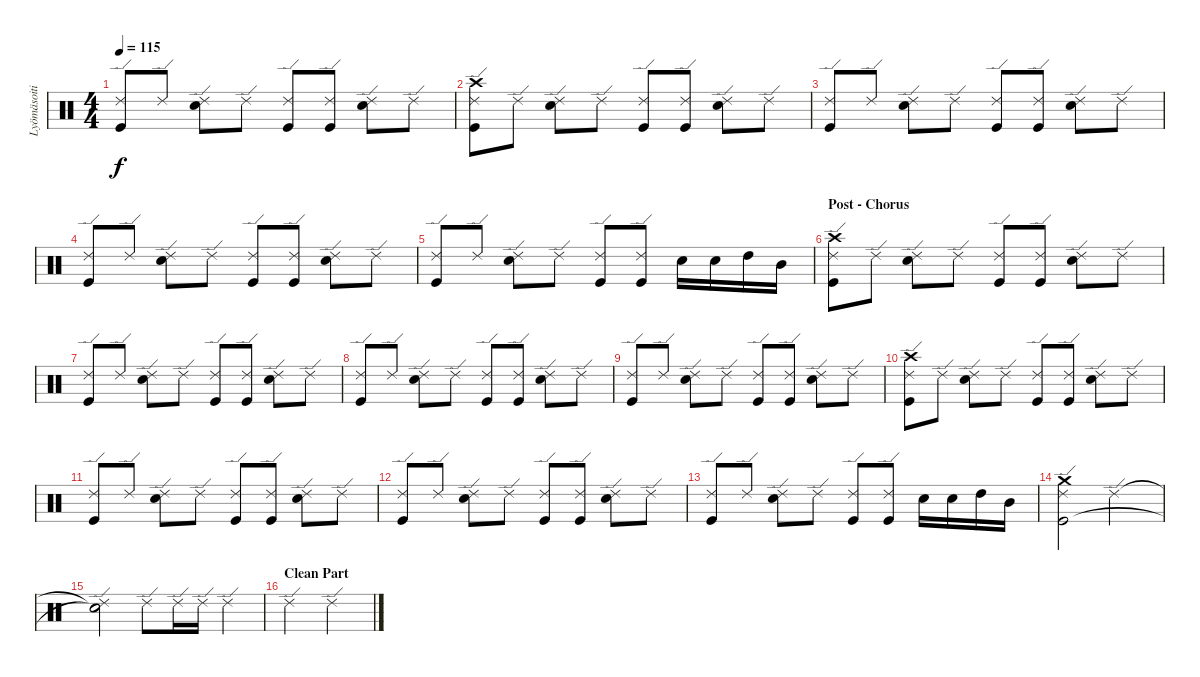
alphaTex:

\track ("Lyömäsoitin" "Lyömäsoiti") {instrument percussion}
\staff {score}
\articulation defaults
\ts (4 4)
\tempo 115
\clef neutral
\ks c
("Ride (edge) 2" "Kick (hit)").8{dy f} "Ride (edge) 2".8 ("Ride (edge) 2" "Snare (hit) 2").8 "Ride (edge) 2".8 ("Ride (edge) 2" "Kick (hit)").8 ("Ride (edge) 2" "Kick (hit)").8 ("Ride (edge) 2" "Snare (hit) 2").8 "Ride (edge) 2".8 |
("Crash high (hit)" "Ride (edge) 2" "Kick (hit)").8 "Ride (edge) 2".8 ("Ride (edge) 2" "Snare (hit) 2").8 "Ride (edge) 2".8 ("Ride (edge) 2" "Kick (hit)").8 ("Ride (edge) 2" "Kick (hit)").8 ("Ride (edge) 2" "Snare (hit) 2").8 "Ride (edge) 2".8 |
("Ride (edge) 2" "Kick (hit)").8 "Ride (edge) 2".8 ("Ride (edge) 2" "Snare (hit) 2").8 "Ride (edge) 2".8 ("Ride (edge) 2" "Kick (hit)").8 ("Ride (edge) 2" "Kick (hit)").8 ("Ride (edge) 2" "Snare (hit) 2").8 "Ride (edge) 2".8 |
("Ride (edge) 2" "Kick (hit)").8 "Ride (edge) 2".8 ("Ride (edge) 2" "Snare (hit) 2").8 "Ride (edge) 2".8 ("Ride (edge) 2" "Kick (hit)").8 ("Ride (edge) 2" "Kick (hit)").8 ("Ride (edge) 2" "Snare (hit) 2").8 "Ride (edge) 2".8 |
("Ride (edge) 2" "Kick (hit)").8 "Ride (edge) 2".8 ("Ride (edge) 2" "Snare (hit) 2").8 "Ride (edge) 2".8 ("Ride (edge) 2" "Kick (hit)").8 ("Ride (edge) 2" "Kick (hit)").8 "Snare (hit) 2".16 "Snare (hit) 2".16 "High Tom (hit)".16 "Mid Tom (hit)".16 |
\section ("" "Post - Chorus")
("Crash high (hit)" "Ride (edge) 2" "Kick (hit)").8 "Ride (edge) 2".8 ("Ride (edge) 2" "Snare (hit) 2").8 "Ride (edge) 2".8 ("Ride (edge) 2" "Kick (hit)").8 ("Ride (edge) 2" "Kick (hit)").8 ("Ride (edge) 2" "Snare (hit) 2").8 "Ride (edge) 2".8 |
("Ride (edge) 2" "Kick (hit)").8 "Ride (edge) 2".8 ("Ride (edge) 2" "Snare (hit) 2").8 "Ride (edge) 2".8 ("Ride (edge) 2" "Kick (hit)").8 ("Ride (edge) 2" "Kick (hit)").8 ("Ride (edge) 2" "Snare (hit) 2").8 "Ride (edge) 2".8 |
("Ride (edge) 2" "Kick (hit)").8 "Ride (edge) 2".8 ("Ride (edge) 2" "Snare (hit) 2").8 "Ride (edge) 2".8 ("Ride (edge) 2" "Kick (hit)").8 ("Ride (edge) 2" "Kick (hit)").8 ("Ride (edge) 2" "Snare (hit) 2").8 "Ride (edge) 2".8 |
("Ride (edge) 2" "Kick (hit)").8 "Ride (edge) 2".8 ("Ride (edge) 2" "Snare (hit) 2").8 "Ride (edge) 2".8 ("Ride (edge) 2" "Kick (hit)").8 ("Ride (edge) 2" "Kick (hit)").8 ("Ride (edge) 2" "Snare (hit) 2").8 "Ride (edge) 2".8 |
("Crash high (hit)" "Ride (edge) 2" "Kick (hit)").8 "Ride (edge) 2".8 ("Ride (edge) 2" "Snare (hit) 2").8 "Ride (edge) 2".8 ("Ride (edge) 2" "Kick (hit)").8 ("Ride (edge) 2" "Kick (hit)").8 ("Ride (edge) 2" "Snare (hit) 2").8 "Ride (edge) 2".8 |
("Ride (edge) 2" "Kick (hit)").8 "Ride (edge) 2".8 ("Ride (edge) 2" "Snare (hit) 2").8 "Ride (edge) 2".8 ("Ride (edge) 2" "Kick (hit)").8 ("Ride (edge) 2" "Kick (hit)").8 ("Ride (edge) 2" "Snare (hit) 2").8 "Ride (edge) 2".8 |
("Ride (edge) 2" "Kick (hit)").8 "Ride (edge) 2".8 ("Ride (edge) 2" "Snare (hit) 2").8 "Ride (edge) 2".8 ("Ride (edge) 2" "Kick (hit)").8 ("Ride (edge) 2" "Kick (hit)").8 ("Ride (edge) 2" "Snare (hit) 2").8 "Ride (edge) 2".8 |
("Ride (edge) 2" "Kick (hit)").8 "Ride (edge) 2".8 ("Ride (edge) 2" "Snare (hit) 2").8 "Ride (edge) 2".8 ("Ride (edge) 2" "Kick (hit)").8 ("Ride (edge) 2" "Kick (hit)").8 "Snare (hit) 2".16 "Snare (hit) 2".16 "High Tom (hit)".16 "Mid Tom (hit)".16 |
("Crash medium (hit)" "Ride (edge) 2" "Kick (hit)").2 "Ride (edge) 2".2 |
("Snare (hit)"{t} "Ride (edge) 2" "Snare (hit)"{t}).2 "Ride (edge) 2".8 "Ride (edge) 2".16 "Ride (edge) 2".16 "Ride (edge) 2".4 |
\section ("" "Clean Part")
"Ride (edge) 2".2 "Ride (edge) 2".2
